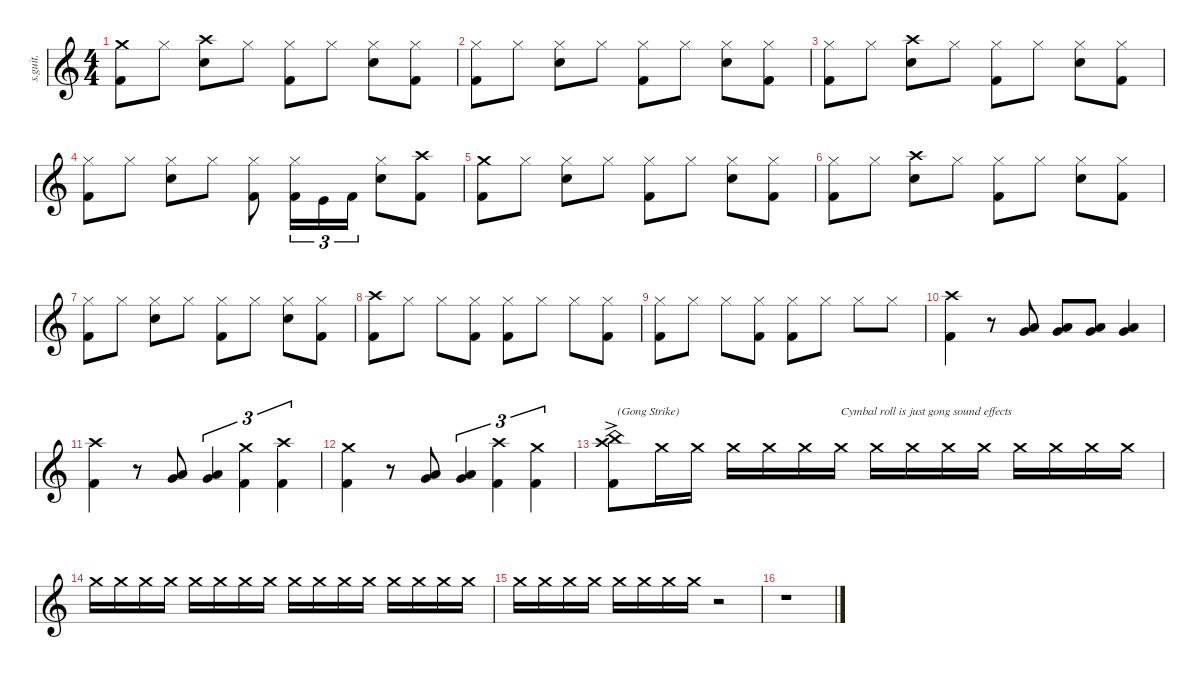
\defaultSystemsLayout 4
\hideDynamics
\bracketExtendMode nobrackets
\track ("Drumkit" "s.guit.") {instrument percussion}
\staff {score}
\articulation defaults
\ts (4 4)
\tempo (130 hide)
\clef g2
\ks c
("Crash medium (hit)" "Kick (hit) 2").8{lyrics (0 "") lyrics (1 "") lyrics (2 "") lyrics (3 "") lyrics (4 "") dy f} "Hi-Hat (closed)".8{lyrics (0 "") lyrics (1 "") lyrics (2 "") lyrics (3 "") lyrics (4 "")} ("Crash high (hit)" "Snare (hit) 2").8{lyrics (0 "") lyrics (1 "") lyrics (2 "") lyrics (3 "") lyrics (4 "")} "Hi-Hat (closed)".8{lyrics (0 "") lyrics (1 "") lyrics (2 "") lyrics (3 "") lyrics (4 "")} ("Hi-Hat (closed)" "Kick (hit) 2").8{lyrics (0 "") lyrics (1 "") lyrics (2 "") lyrics (3 "") lyrics (4 "")} "Hi-Hat (closed)".8{lyrics (0 "") lyrics (1 "") lyrics (2 "") lyrics (3 "") lyrics (4 "")} ("Hi-Hat (closed)" "Snare (hit) 2").8{lyrics (0 "") lyrics (1 "") lyrics (2 "") lyrics (3 "") lyrics (4 "")} ("Hi-Hat (closed)" "Kick (hit) 2").8{lyrics (0 "") lyrics (1 "") lyrics (2 "") lyrics (3 "") lyrics (4 "")} |
("Hi-Hat (closed)" "Kick (hit) 2").8{lyrics (0 "") lyrics (1 "") lyrics (2 "") lyrics (3 "") lyrics (4 "")} "Hi-Hat (closed)".8{lyrics (0 "") lyrics (1 "") lyrics (2 "") lyrics (3 "") lyrics (4 "")} ("Hi-Hat (closed)" "Snare (hit) 2").8{lyrics (0 "") lyrics (1 "") lyrics (2 "") lyrics (3 "") lyrics (4 "")} "Hi-Hat (closed)".8{lyrics (0 "") lyrics (1 "") lyrics (2 "") lyrics (3 "") lyrics (4 "")} ("Hi-Hat (closed)" "Kick (hit) 2").8{lyrics (0 "") lyrics (1 "") lyrics (2 "") lyrics (3 "") lyrics (4 "")} "Hi-Hat (closed)".8{lyrics (0 "") lyrics (1 "") lyrics (2 "") lyrics (3 "") lyrics (4 "")} ("Hi-Hat (closed)" "Snare (hit) 2").8{lyrics (0 "") lyrics (1 "") lyrics (2 "") lyrics (3 "") lyrics (4 "")} ("Hi-Hat (closed)" "Kick (hit) 2").8{lyrics (0 "") lyrics (1 "") lyrics (2 "") lyrics (3 "") lyrics (4 "")} |
("Hi-Hat (closed)" "Kick (hit) 2").8{lyrics (0 "") lyrics (1 "") lyrics (2 "") lyrics (3 "") lyrics (4 "")} "Hi-Hat (closed)".8{lyrics (0 "") lyrics (1 "") lyrics (2 "") lyrics (3 "") lyrics (4 "")} ("Crash high (hit)" "Snare (hit) 2").8{lyrics (0 "") lyrics (1 "") lyrics (2 "") lyrics (3 "") lyrics (4 "")} "Hi-Hat (closed)".8{lyrics (0 "") lyrics (1 "") lyrics (2 "") lyrics (3 "") lyrics (4 "")} ("Hi-Hat (closed)" "Kick (hit) 2").8{lyrics (0 "") lyrics (1 "") lyrics (2 "") lyrics (3 "") lyrics (4 "")} "Hi-Hat (closed)".8{lyrics (0 "") lyrics (1 "") lyrics (2 "") lyrics (3 "") lyrics (4 "")} ("Hi-Hat (closed)" "Snare (hit) 2").8{lyrics (0 "") lyrics (1 "") lyrics (2 "") lyrics (3 "") lyrics (4 "")} ("Hi-Hat (closed)" "Kick (hit) 2").8{lyrics (0 "") lyrics (1 "") lyrics (2 "") lyrics (3 "") lyrics (4 "")} |
("Hi-Hat (closed)" "Kick (hit) 2").8{lyrics (0 "") lyrics (1 "") lyrics (2 "") lyrics (3 "") lyrics (4 "")} "Hi-Hat (closed)".8{lyrics (0 "") lyrics (1 "") lyrics (2 "") lyrics (3 "") lyrics (4 "")} ("Hi-Hat (closed)" "Snare (hit) 2").8{lyrics (0 "") lyrics (1 "") lyrics (2 "") lyrics (3 "") lyrics (4 "")} "Hi-Hat (closed)".8{lyrics (0 "") lyrics (1 "") lyrics (2 "") lyrics (3 "") lyrics (4 "")} ("Hi-Hat (closed)" "Kick (hit) 2").8{lyrics (0 "") lyrics (1 "") lyrics (2 "") lyrics (3 "") lyrics (4 "")} ("Hi-Hat (closed)" "Kick (hit) 2").16{tu (3 2) lyrics (0 "") lyrics (1 "") lyrics (2 "") lyrics (3 "") lyrics (4 "")} "Kick (hit)".16{tu (3 2) lyrics (0 "") lyrics (1 "") lyrics (2 "") lyrics (3 "") lyrics (4 "")} "Kick (hit) 2".16{tu (3 2) lyrics (0 "") lyrics (1 "") lyrics (2 "") lyrics (3 "") lyrics (4 "")} ("Hi-Hat (closed)" "Snare (hit) 2").8{lyrics (0 "") lyrics (1 "") lyrics (2 "") lyrics (3 "") lyrics (4 "")} ("Crash high (hit)" "Kick (hit) 2").8{lyrics (0 "") lyrics (1 "") lyrics (2 "") lyrics (3 "") lyrics (4 "")} |
("Crash medium (hit)" "Kick (hit) 2").8{lyrics (0 "") lyrics (1 "") lyrics (2 "") lyrics (3 "") lyrics (4 "")} "Hi-Hat (closed)".8{lyrics (0 "") lyrics (1 "") lyrics (2 "") lyrics (3 "") lyrics (4 "")} ("Hi-Hat (closed)" "Snare (hit) 2").8{lyrics (0 "") lyrics (1 "") lyrics (2 "") lyrics (3 "") lyrics (4 "")} "Hi-Hat (closed)".8{lyrics (0 "") lyrics (1 "") lyrics (2 "") lyrics (3 "") lyrics (4 "")} ("Hi-Hat (closed)" "Kick (hit) 2").8{lyrics (0 "") lyrics (1 "") lyrics (2 "") lyrics (3 "") lyrics (4 "")} "Hi-Hat (closed)".8{lyrics (0 "") lyrics (1 "") lyrics (2 "") lyrics (3 "") lyrics (4 "")} ("Hi-Hat (closed)" "Snare (hit) 2").8{lyrics (0 "") lyrics (1 "") lyrics (2 "") lyrics (3 "") lyrics (4 "")} ("Hi-Hat (closed)" "Kick (hit) 2").8{lyrics (0 "") lyrics (1 "") lyrics (2 "") lyrics (3 "") lyrics (4 "")} |
("Hi-Hat (closed)" "Kick (hit) 2").8{lyrics (0 "") lyrics (1 "") lyrics (2 "") lyrics (3 "") lyrics (4 "")} "Hi-Hat (closed)".8{lyrics (0 "") lyrics (1 "") lyrics (2 "") lyrics (3 "") lyrics (4 "")} ("Crash high (hit)" "Snare (hit) 2").8{lyrics (0 "") lyrics (1 "") lyrics (2 "") lyrics (3 "") lyrics (4 "")} "Hi-Hat (closed)".8{lyrics (0 "") lyrics (1 "") lyrics (2 "") lyrics (3 "") lyrics (4 "")} ("Hi-Hat (closed)" "Kick (hit) 2").8{lyrics (0 "") lyrics (1 "") lyrics (2 "") lyrics (3 "") lyrics (4 "")} "Hi-Hat (closed)".8{lyrics (0 "") lyrics (1 "") lyrics (2 "") lyrics (3 "") lyrics (4 "")} ("Hi-Hat (closed)" "Snare (hit) 2").8{lyrics (0 "") lyrics (1 "") lyrics (2 "") lyrics (3 "") lyrics (4 "")} ("Hi-Hat (closed)" "Kick (hit) 2").8{lyrics (0 "") lyrics (1 "") lyrics (2 "") lyrics (3 "") lyrics (4 "")} |
("Hi-Hat (closed)" "Kick (hit) 2").8{lyrics (0 "") lyrics (1 "") lyrics (2 "") lyrics (3 "") lyrics (4 "")} "Hi-Hat (closed)".8{lyrics (0 "") lyrics (1 "") lyrics (2 "") lyrics (3 "") lyrics (4 "")} ("Hi-Hat (closed)" "Snare (hit) 2").8{lyrics (0 "") lyrics (1 "") lyrics (2 "") lyrics (3 "") lyrics (4 "")} "Hi-Hat (closed)".8{lyrics (0 "") lyrics (1 "") lyrics (2 "") lyrics (3 "") lyrics (4 "")} ("Hi-Hat (closed)" "Kick (hit) 2").8{lyrics (0 "") lyrics (1 "") lyrics (2 "") lyrics (3 "") lyrics (4 "")} "Hi-Hat (closed)".8{lyrics (0 "") lyrics (1 "") lyrics (2 "") lyrics (3 "") lyrics (4 "")} ("Hi-Hat (closed)" "Snare (hit) 2").8{lyrics (0 "") lyrics (1 "") lyrics (2 "") lyrics (3 "") lyrics (4 "")} ("Hi-Hat (closed)" "Kick (hit) 2").8{lyrics (0 "") lyrics (1 "") lyrics (2 "") lyrics (3 "") lyrics (4 "")} |
("Crash high (hit)" "Kick (hit) 2").8{lyrics (0 "") lyrics (1 "") lyrics (2 "") lyrics (3 "") lyrics (4 "")} "Hi-Hat (closed)".8{lyrics (0 "") lyrics (1 "") lyrics (2 "") lyrics (3 "") lyrics (4 "")} "Hi-Hat (closed)".8{lyrics (0 "") lyrics (1 "") lyrics (2 "") lyrics (3 "") lyrics (4 "")} ("Hi-Hat (closed)" "Kick (hit) 2").8{lyrics (0 "") lyrics (1 "") lyrics (2 "") lyrics (3 "") lyrics (4 "")} ("Hi-Hat (closed)" "Kick (hit) 2").8{lyrics (0 "") lyrics (1 "") lyrics (2 "") lyrics (3 "") lyrics (4 "")} "Hi-Hat (closed)".8{lyrics (0 "") lyrics (1 "") lyrics (2 "") lyrics (3 "") lyrics (4 "")} "Hi-Hat (closed)".8{lyrics (0 "") lyrics (1 "") lyrics (2 "") lyrics (3 "") lyrics (4 "")} ("Hi-Hat (closed)" "Kick (hit) 2").8{lyrics (0 "") lyrics (1 "") lyrics (2 "") lyrics (3 "") lyrics (4 "")} |
("Hi-Hat (closed)" "Kick (hit) 2").8{lyrics (0 "") lyrics (1 "") lyrics (2 "") lyrics (3 "") lyrics (4 "")} "Hi-Hat (closed)".8{lyrics (0 "") lyrics (1 "") lyrics (2 "") lyrics (3 "") lyrics (4 "")} "Hi-Hat (closed)".8{lyrics (0 "") lyrics (1 "") lyrics (2 "") lyrics (3 "") lyrics (4 "")} ("Hi-Hat (closed)" "Kick (hit) 2").8{lyrics (0 "") lyrics (1 "") lyrics (2 "") lyrics (3 "") lyrics (4 "")} ("Hi-Hat (closed)" "Kick (hit) 2").8{lyrics (0 "") lyrics (1 "") lyrics (2 "") lyrics (3 "") lyrics (4 "")} "Hi-Hat (closed)".8{lyrics (0 "") lyrics (1 "") lyrics (2 "") lyrics (3 "") lyrics (4 "")} "Hi-Hat (closed)".8{lyrics (0 "") lyrics (1 "") lyrics (2 "") lyrics (3 "") lyrics (4 "")} "Hi-Hat (closed)".8{lyrics (0 "") lyrics (1 "") lyrics (2 "") lyrics (3 "") lyrics (4 "")} |
\tempo (125 hide)
("Kick (hit) 2" "Crash high (hit)").4{lyrics (0 "") lyrics (1 "") lyrics (2 "") lyrics (3 "") lyrics (4 "")} r.8 ("Low Floor Tom (hit)" "Very Low Tom (hit)").8{lyrics (0 "") lyrics (1 "") lyrics (2 "") lyrics (3 "") lyrics (4 "")} ("Low Floor Tom (hit)" "Very Low Tom (hit)").8{lyrics (0 "") lyrics (1 "") lyrics (2 "") lyrics (3 "") lyrics (4 "")} ("Low Floor Tom (hit)" "Very Low Tom (hit)").8{lyrics (0 "") lyrics (1 "") lyrics (2 "") lyrics (3 "") lyrics (4 "")} ("Low Floor Tom (hit)" "Very Low Tom (hit)").4{lyrics (0 "") lyrics (1 "") lyrics (2 "") lyrics (3 "") lyrics (4 "")} |
("Crash high (hit)" "Kick (hit) 2").4{lyrics (0 "") lyrics (1 "") lyrics (2 "") lyrics (3 "") lyrics (4 "")} r.8 ("Low Floor Tom (hit)" "Very Low Tom (hit)").8{lyrics (0 "") lyrics (1 "") lyrics (2 "") lyrics (3 "") lyrics (4 "")} ("Low Floor Tom (hit)" "Very Low Tom (hit)").4{tu (3 2) lyrics (0 "") lyrics (1 "") lyrics (2 "") lyrics (3 "") lyrics (4 "")} ("Crash medium (hit)" "Kick (hit) 2").4{tu (3 2) lyrics (0 "") lyrics (1 "") lyrics (2 "") lyrics (3 "") lyrics (4 "")} ("Crash high (hit)" "Kick (hit) 2").4{tu (3 2) lyrics (0 "") lyrics (1 "") lyrics (2 "") lyrics (3 "") lyrics (4 "")} |
\tempo (120 hide)
("Crash medium (hit)" "Kick (hit) 2").4{lyrics (0 "") lyrics (1 "") lyrics (2 "") lyrics (3 "") lyrics (4 "")} r.8 ("Low Floor Tom (hit)" "Very Low Tom (hit)").8{lyrics (0 "") lyrics (1 "") lyrics (2 "") lyrics (3 "") lyrics (4 "")} ("Low Floor Tom (hit)" "Very Low Tom (hit)").4{tu (3 2) lyrics (0 "") lyrics (1 "") lyrics (2 "") lyrics (3 "") lyrics (4 "")} ("Crash high (hit)" "Kick (hit) 2").4{tu (3 2) lyrics (0 "") lyrics (1 "") lyrics (2 "") lyrics (3 "") lyrics (4 "")} ("Crash medium (hit)" "Kick (hit) 2").4{tu (3 2) lyrics (0 "") lyrics (1 "") lyrics (2 "") lyrics (3 "") lyrics (4 "")} |
("China (hit)"{ac} "Crash high (hit)" "Kick (hit) 2").8{txt "(Gong Strike)" lyrics (0 "") lyrics (1 "") lyrics (2 "") lyrics (3 "") lyrics (4 "")} "Crash medium (hit)".16{lyrics (0 "") lyrics (1 "") lyrics (2 "") lyrics (3 "") lyrics (4 "") dy ppp} "Crash medium (hit)".16{lyrics (0 "") lyrics (1 "") lyrics (2 "") lyrics (3 "") lyrics (4 "")} "Crash medium (hit)".16{lyrics (0 "") lyrics (1 "") lyrics (2 "") lyrics (3 "") lyrics (4 "")} "Crash medium (hit)".16{lyrics (0 "") lyrics (1 "") lyrics (2 "") lyrics (3 "") lyrics (4 "") dy pp} "Crash medium (hit)".16{lyrics (0 "") lyrics (1 "") lyrics (2 "") lyrics (3 "") lyrics (4 "")} "Crash medium (hit)".16{txt "Cymbal roll is just gong sound effects" lyrics (0 "") lyrics (1 "") lyrics (2 "") lyrics (3 "") lyrics (4 "")} "Crash medium (hit)".16{lyrics (0 "") lyrics (1 "") lyrics (2 "") lyrics (3 "") lyrics (4 "")} "Crash medium (hit)".16{lyrics (0 "") lyrics (1 "") lyrics (2 "") lyrics (3 "") lyrics (4 "") dy p} "Crash medium (hit)".16{lyrics (0 "") lyrics (1 "") lyrics (2 "") lyrics (3 "") lyrics (4 "")} "Crash medium (hit)".16{lyrics (0 "") lyrics (1 "") lyrics (2 "") lyrics (3 "") lyrics (4 "")} "Crash medium (hit)".16{lyrics (0 "") lyrics (1 "") lyrics (2 "") lyrics (3 "") lyrics (4 "") dy mp} "Crash medium (hit)".16{lyrics (0 "") lyrics (1 "") lyrics (2 "") lyrics (3 "") lyrics (4 "")} "Crash medium (hit)".16{lyrics (0 "") lyrics (1 "") lyrics (2 "") lyrics (3 "") lyrics (4 "")} "Crash medium (hit)".16{lyrics (0 "") lyrics (1 "") lyrics (2 "") lyrics (3 "") lyrics (4 "")} |
"Crash medium (hit)".16{lyrics (0 "") lyrics (1 "") lyrics (2 "") lyrics (3 "") lyrics (4 "") dy mf} "Crash medium (hit)".16{lyrics (0 "") lyrics (1 "") lyrics (2 "") lyrics (3 "") lyrics (4 "")} "Crash medium (hit)".16{lyrics (0 "") lyrics (1 "") lyrics (2 "") lyrics (3 "") lyrics (4 "")} "Crash medium (hit)".16{lyrics (0 "") lyrics (1 "") lyrics (2 "") lyrics (3 "") lyrics (4 "") dy f} "Crash medium (hit)".16{lyrics (0 "") lyrics (1 "") lyrics (2 "") lyrics (3 "") lyrics (4 "")} "Crash medium (hit)".16{lyrics (0 "") lyrics (1 "") lyrics (2 "") lyrics (3 "") lyrics (4 "")} "Crash medium (hit)".16{lyrics (0 "") lyrics (1 "") lyrics (2 "") lyrics (3 "") lyrics (4 "")} "Crash medium (hit)".16{lyrics (0 "") lyrics (1 "") lyrics (2 "") lyrics (3 "") lyrics (4 "")} "Crash medium (hit)".16{lyrics (0 "") lyrics (1 "") lyrics (2 "") lyrics (3 "") lyrics (4 "") dy mf} "Crash medium (hit)".16{lyrics (0 "") lyrics (1 "") lyrics (2 "") lyrics (3 "") lyrics (4 "")} "Crash medium (hit)".16{lyrics (0 "") lyrics (1 "") lyrics (2 "") lyrics (3 "") lyrics (4 "") dy mp} "Crash medium (hit)".16{lyrics (0 "") lyrics (1 "") lyrics (2 "") lyrics (3 "") lyrics (4 "")} "Crash medium (hit)".16{lyrics (0 "") lyrics (1 "") lyrics (2 "") lyrics (3 "") lyrics (4 "")} "Crash medium (hit)".16{lyrics (0 "") lyrics (1 "") lyrics (2 "") lyrics (3 "") lyrics (4 "") dy p} "Crash medium (hit)".16{lyrics (0 "") lyrics (1 "") lyrics (2 "") lyrics (3 "") lyrics (4 "")} "Crash medium (hit)".16{lyrics (0 "") lyrics (1 "") lyrics (2 "") lyrics (3 "") lyrics (4 "")} |
"Crash medium (hit)".16{lyrics (0 "") lyrics (1 "") lyrics (2 "") lyrics (3 "") lyrics (4 "") dy pp} "Crash medium (hit)".16{lyrics (0 "") lyrics (1 "") lyrics (2 "") lyrics (3 "") lyrics (4 "")} "Crash medium (hit)".16{lyrics (0 "") lyrics (1 "") lyrics (2 "") lyrics (3 "") lyrics (4 "")} "Crash medium (hit)".16{lyrics (0 "") lyrics (1 "") lyrics (2 "") lyrics (3 "") lyrics (4 "")} "Crash medium (hit)".16{lyrics (0 "") lyrics (1 "") lyrics (2 "") lyrics (3 "") lyrics (4 "") dy ppp} "Crash medium (hit)".16{lyrics (0 "") lyrics (1 "") lyrics (2 "") lyrics (3 "") lyrics (4 "")} "Crash medium (hit)".16{lyrics (0 "") lyrics (1 "") lyrics (2 "") lyrics (3 "") lyrics (4 "")} "Crash medium (hit)".16{lyrics (0 "") lyrics (1 "") lyrics (2 "") lyrics (3 "") lyrics (4 "")} r.2 |
r.1
